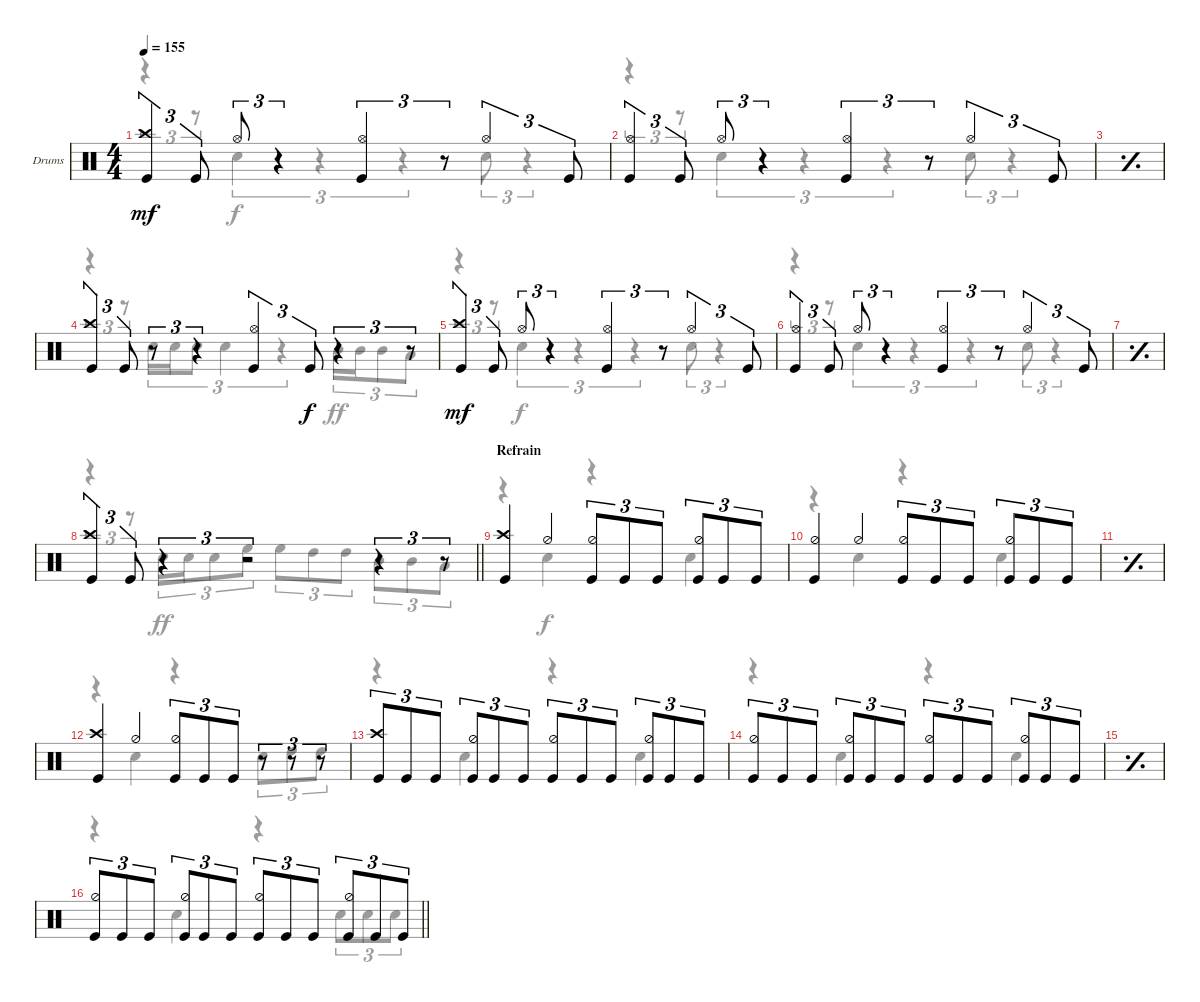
\defaultSystemsLayout 4
\bracketExtendMode groupsimilarinstruments
\firstSystemTrackNameOrientation horizontal
\otherSystemsTrackNameOrientation horizontal
\track ("Drumkit" "Drums") {instrument percussion}
\staff {score}
\articulation defaults
\voice
\ts (4 4)
\tempo 155
\clef neutral
\ks c
("Kick (hit)" "Crash high (hit)").4{tu (3 2) dy mf} "Kick (hit)".8{tu (3 2)} "Hi-Hat (open)".8{tu (3 2)} r.4{tu (3 2)} ("Kick (hit)" "Hi-Hat (open)").4{tu (3 2)} r.8{tu (3 2)} "Hi-Hat (open)".4{tu (3 2)} "Kick (hit)".8{tu (3 2)} |
("Kick (hit)" "Hi-Hat (open)").4{tu (3 2)} "Kick (hit)".8{tu (3 2)} "Hi-Hat (open)".8{tu (3 2)} r.4{tu (3 2)} ("Kick (hit)" "Hi-Hat (open)").4{tu (3 2)} r.8{tu (3 2)} "Hi-Hat (open)".4{tu (3 2)} "Kick (hit)".8{tu (3 2)} |
\simile simple
|
\simile none
("Kick (hit)" "Crash high (hit)").4{tu (3 2)} "Kick (hit)".8{tu (3 2)} r.8{tu (3 2)} r.4{tu (3 2)} ("Kick (hit)" "Hi-Hat (open)").4{tu (3 2)} "Kick (hit)".8{tu (3 2) dy f} r.4{tu (3 2)} r.8{tu (3 2)} |
("Kick (hit)" "Crash high (hit)").4{tu (3 2) dy mf} "Kick (hit)".8{tu (3 2)} "Hi-Hat (open)".8{tu (3 2)} r.4{tu (3 2)} ("Kick (hit)" "Hi-Hat (open)").4{tu (3 2)} r.8{tu (3 2)} "Hi-Hat (open)".4{tu (3 2)} "Kick (hit)".8{tu (3 2)} |
("Kick (hit)" "Hi-Hat (open)").4{tu (3 2)} "Kick (hit)".8{tu (3 2)} "Hi-Hat (open)".8{tu (3 2)} r.4{tu (3 2)} ("Kick (hit)" "Hi-Hat (open)").4{tu (3 2)} r.8{tu (3 2)} "Hi-Hat (open)".4{tu (3 2)} "Kick (hit)".8{tu (3 2)} |
\simile simple
|
\simile none
\barLineRight lightlight
("Kick (hit)" "Crash high (hit)").4{tu (3 2)} "Kick (hit)".8{tu (3 2)} r.4{tu (3 2)} r.2{tu (3 2)} r.4{tu (3 2)} r.8{tu (3 2)} |
\section ("" "Refrain")
("Kick (hit)" "Crash high (hit)").4 "Hi-Hat (half)".4 ("Kick (hit)" "Hi-Hat (half)").8{tu (3 2)} "Kick (hit)".8{tu (3 2)} "Kick (hit)".8{tu (3 2)} ("Kick (hit)" "Hi-Hat (half)").8{tu (3 2)} "Kick (hit)".8{tu (3 2)} "Kick (hit)".8{tu (3 2)} |
("Kick (hit)" "Hi-Hat (half)").4 "Hi-Hat (half)".4 ("Kick (hit)" "Hi-Hat (half)").8{tu (3 2)} "Kick (hit)".8{tu (3 2)} "Kick (hit)".8{tu (3 2)} ("Kick (hit)" "Hi-Hat (half)").8{tu (3 2)} "Kick (hit)".8{tu (3 2)} "Kick (hit)".8{tu (3 2)} |
\simile simple
|
\simile none
("Kick (hit)" "Crash high (hit)").4 "Hi-Hat (half)".4 ("Kick (hit)" "Hi-Hat (half)").8{tu (3 2)} "Kick (hit)".8{tu (3 2)} "Kick (hit)".8{tu (3 2)} r.8{tu (3 2)} r.8{tu (3 2)} r.8{tu (3 2)} |
("Kick (hit)" "Crash high (hit)").8{tu (3 2)} "Kick (hit)".8{tu (3 2)} "Kick (hit)".8{tu (3 2)} ("Kick (hit)" "Hi-Hat (half)").8{tu (3 2)} "Kick (hit)".8{tu (3 2)} "Kick (hit)".8{tu (3 2)} ("Kick (hit)" "Hi-Hat (half)").8{tu (3 2)} "Kick (hit)".8{tu (3 2)} "Kick (hit)".8{tu (3 2)} ("Kick (hit)" "Hi-Hat (half)").8{tu (3 2)} "Kick (hit)".8{tu (3 2)} "Kick (hit)".8{tu (3 2)} |
("Kick (hit)" "Hi-Hat (half)").8{tu (3 2)} "Kick (hit)".8{tu (3 2)} "Kick (hit)".8{tu (3 2)} ("Kick (hit)" "Hi-Hat (half)").8{tu (3 2)} "Kick (hit)".8{tu (3 2)} "Kick (hit)".8{tu (3 2)} ("Kick (hit)" "Hi-Hat (half)").8{tu (3 2)} "Kick (hit)".8{tu (3 2)} "Kick (hit)".8{tu (3 2)} ("Kick (hit)" "Hi-Hat (half)").8{tu (3 2)} "Kick (hit)".8{tu (3 2)} "Kick (hit)".8{tu (3 2)} |
\simile simple
|
\simile none
\barLineRight lightlight
("Kick (hit)" "Hi-Hat (half)").8{tu (3 2)} "Kick (hit)".8{tu (3 2)} "Kick (hit)".8{tu (3 2)} ("Kick (hit)" "Hi-Hat (half)").8{tu (3 2)} "Kick (hit)".8{tu (3 2)} "Kick (hit)".8{tu (3 2)} ("Kick (hit)" "Hi-Hat (half)").8{tu (3 2)} "Kick (hit)".8{tu (3 2)} "Kick (hit)".8{tu (3 2)} ("Kick (hit)" "Hi-Hat (half)").8{tu (3 2)} "Kick (hit)".8{tu (3 2)} "Kick (hit)".8{tu (3 2)}
\voice
\clef neutral
\ottava regular
\simile none
\ks c
r.4{tu (3 2) dy ff} r.8{tu (3 2)} "Snare (hit) 2".4{tu (3 2) dy f} r.4{tu (3 2)} r.4{tu (3 2)} "Snare (hit) 2".8{tu (3 2)} r.4{tu (3 2)} |
r.4{tu (3 2)} r.8{tu (3 2)} "Snare (hit) 2".4{tu (3 2)} r.4{tu (3 2)} r.4{tu (3 2)} "Snare (hit) 2".8{tu (3 2)} r.4{tu (3 2)} |
\simile simple
|
\simile none
r.4{tu (3 2)} r.8{tu (3 2)} "Snare (hit) 2".16{tu (3 2)} "Snare (hit) 2".16{tu (3 2)} "Snare (hit) 2".8{tu (3 2)} "Snare (hit) 2".4{tu (3 2)} r.4{tu (3 2)} "Mid Tom (hit)".16{tu (3 2) dy ff} "Mid Tom (hit)".16{tu (3 2)} "Mid Tom (hit)".8{tu (3 2)} "Low Tom (hit)".8{tu (3 2)} |
r.4{tu (3 2)} r.8{tu (3 2)} "Snare (hit) 2".4{tu (3 2) dy f} r.4{tu (3 2)} r.4{tu (3 2)} "Snare (hit) 2".8{tu (3 2)} r.4{tu (3 2)} |
r.4{tu (3 2)} r.8{tu (3 2)} "Snare (hit) 2".4{tu (3 2)} r.4{tu (3 2)} r.4{tu (3 2)} "Snare (hit) 2".8{tu (3 2)} r.4{tu (3 2)} |
\simile simple
|
\simile none
\barLineRight lightlight
r.4{tu (3 2)} r.8{tu (3 2)} "Snare (hit) 2".16{tu (3 2) dy ff} "Snare (hit) 2".16{tu (3 2)} "Snare (hit) 2".8{tu (3 2)} "High Floor Tom (hit)".8{tu (3 2)} "High Floor Tom (hit)".8{tu (3 2)} "High Tom (hit)".8{tu (3 2)} "High Tom (hit)".8{tu (3 2)} "Mid Tom (hit)".8{tu (3 2)} "Mid Tom (hit)".8{tu (3 2)} "Low Tom (hit)".8{tu (3 2)} |
r.4 "Snare (hit) 2".4{dy f} r.4 "Snare (hit) 2".4 |
r.4 "Snare (hit) 2".4 r.4 "Snare (hit) 2".4 |
\simile simple
|
\simile none
r.4 "Snare (hit) 2".4 r.4 "Snare (hit) 2".8{tu (3 2)} "High Tom (hit)".8{tu (3 2)} "High Tom (hit)".8{tu (3 2)} |
r.4 "Snare (hit) 2".4 r.4 "Snare (hit) 2".4 |
r.4 "Snare (hit) 2".4 r.4 "Snare (hit) 2".4 |
\simile simple
|
\simile none
\barLineRight lightlight
r.4 "Snare (hit) 2".4 r.4 "Snare (hit) 2".8{tu (3 2)} "Snare (hit) 2".8{tu (3 2)} "Snare (hit) 2".8{tu (3 2)}
